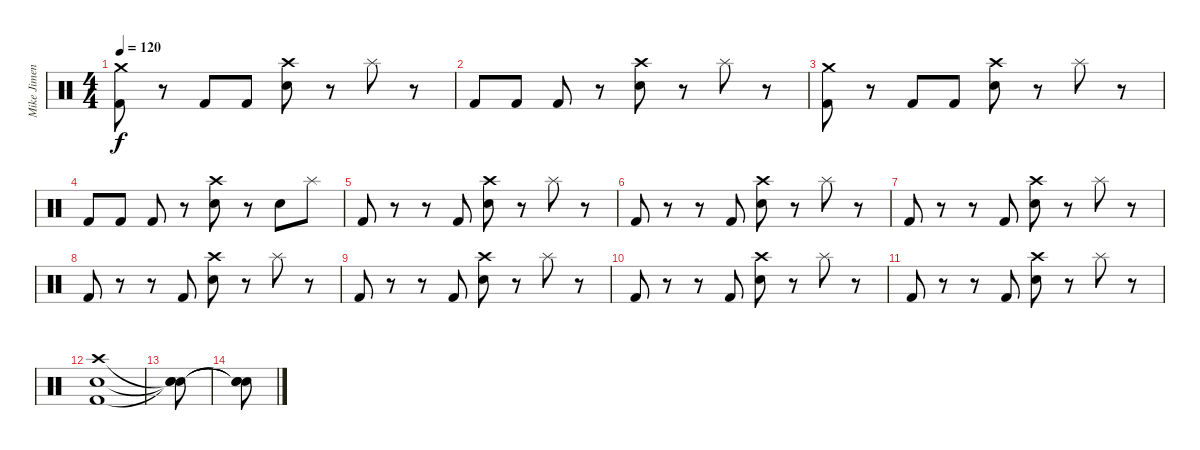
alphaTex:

\track ("Mike Jimenez Drums" "Mike Jimen") {instrument percussion}
\staff {score}
\articulation defaults
\ts (4 4)
\tempo 120
\clef neutral
\ks c
("Crash medium (hit)" "Kick (hit) 2").8{dy f} r.8 "Kick (hit) 2".8 "Kick (hit) 2".8 ("Crash high (hit)" "Electric Snare (hit)").8 r.8 "Splash (hit)".8 r.8 |
"Kick (hit) 2".8 "Kick (hit) 2".8 "Kick (hit) 2".8 r.8 ("Crash high (hit)" "Electric Snare (hit)").8 r.8 "Splash (hit)".8 r.8 |
("Crash medium (hit)" "Kick (hit) 2").8 r.8 "Kick (hit) 2".8 "Kick (hit) 2".8 ("Crash high (hit)" "Electric Snare (hit)").8 r.8 "Splash (hit)".8 r.8 |
"Kick (hit) 2".8 "Kick (hit) 2".8 "Kick (hit) 2".8 r.8 ("Crash high (hit)" "Electric Snare (hit)").8 r.8 "Electric Snare (hit)".8 "Splash (hit)".8 |
"Kick (hit) 2".8 r.8 r.8 "Kick (hit) 2".8 ("Crash high (hit)" "Electric Snare (hit)").8 r.8 "Splash (hit)".8 r.8 |
"Kick (hit) 2".8 r.8 r.8 "Kick (hit) 2".8 ("Crash high (hit)" "Electric Snare (hit)").8 r.8 "Splash (hit)".8 r.8 |
"Kick (hit) 2".8 r.8 r.8 "Kick (hit) 2".8 ("Crash high (hit)" "Electric Snare (hit)").8 r.8 "Splash (hit)".8 r.8 |
"Kick (hit) 2".8 r.8 r.8 "Kick (hit) 2".8 ("Crash high (hit)" "Electric Snare (hit)").8 r.8 "Splash (hit)".8 r.8 |
"Kick (hit) 2".8 r.8 r.8 "Kick (hit) 2".8 ("Crash high (hit)" "Electric Snare (hit)").8 r.8 "Splash (hit)".8 r.8 |
"Kick (hit) 2".8 r.8 r.8 "Kick (hit) 2".8 ("Crash high (hit)" "Electric Snare (hit)").8 r.8 "Splash (hit)".8 r.8 |
"Kick (hit) 2".8 r.8 r.8 "Kick (hit) 2".8 ("Crash high (hit)" "Electric Snare (hit)").8 r.8 "Splash (hit)".8 r.8 |
("Crash high (hit)" "Electric Snare (hit)" "Kick (hit) 2").1 |
("Snare (hit)"{t} "Snare (hit)"{t} "Snare (hit)"{t}).8 |
("Snare (hit)"{t} "Snare (hit)"{t} "Snare (hit)"{t}).8
